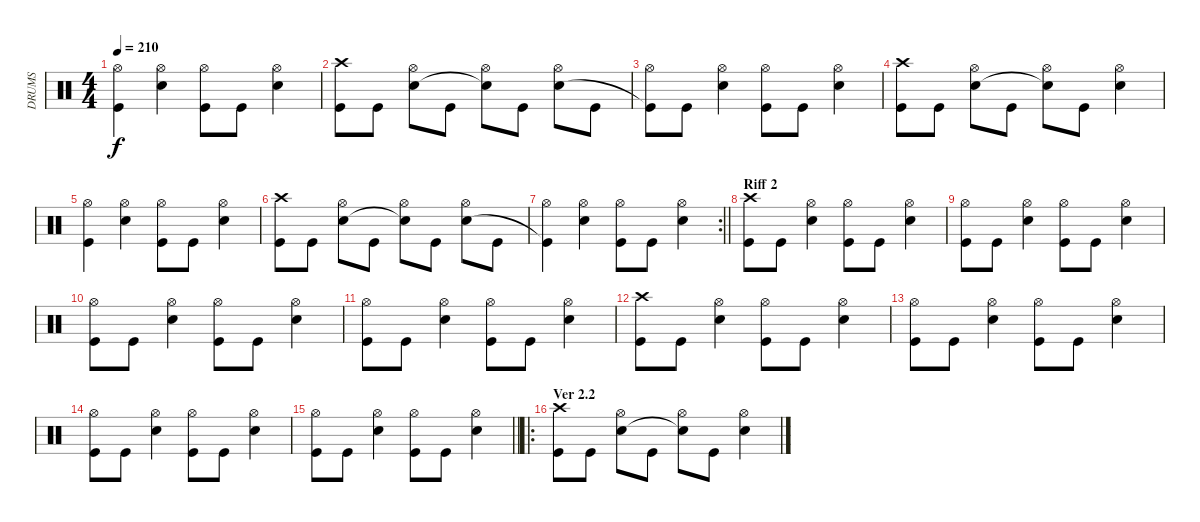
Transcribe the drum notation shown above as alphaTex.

\track ("DRUMS" "DRUMS") {instrument percussion}
\staff {score}
\articulation defaults
\ts (4 4)
\tempo 210
\clef neutral
\ks c
("Hi-Hat (open)" "Kick (hit)").4{dy f} ("Hi-Hat (open)" "Snare (hit) 2").4 ("Hi-Hat (open)" "Kick (hit)").8 "Kick (hit)".8 ("Hi-Hat (open)" "Snare (hit) 2").4 |
("Crash high (hit)" "Kick (hit)").8 "Kick (hit)".8 ("Hi-Hat (open)" "Snare (hit) 2").8 "Kick (hit)".8 ("Hi-Hat (open)" "Snare (hit)"{t}).8 "Kick (hit)".8 ("Hi-Hat (open)" "Snare (hit) 2").8 "Kick (hit)".8 |
("Hi-Hat (open)" "Kick (hit)"{t}).8 "Kick (hit)".8 ("Hi-Hat (open)" "Snare (hit) 2").4 ("Hi-Hat (open)" "Kick (hit)").8 "Kick (hit)".8 ("Hi-Hat (open)" "Snare (hit) 2").4 |
("Crash high (hit)" "Kick (hit)").8 "Kick (hit)".8 ("Hi-Hat (open)" "Snare (hit) 2").8 "Kick (hit)".8 ("Hi-Hat (open)" "Snare (hit)"{t}).8 "Kick (hit)".8 ("Hi-Hat (open)" "Snare (hit) 2").4 |
("Hi-Hat (open)" "Kick (hit)").4 ("Hi-Hat (open)" "Snare (hit) 2").4 ("Hi-Hat (open)" "Kick (hit)").8 "Kick (hit)".8 ("Hi-Hat (open)" "Snare (hit) 2").4 |
("Crash high (hit)" "Kick (hit)").8 "Kick (hit)".8 ("Hi-Hat (open)" "Snare (hit) 2").8 "Kick (hit)".8 ("Hi-Hat (open)" "Snare (hit)"{t}).8 "Kick (hit)".8 ("Hi-Hat (open)" "Snare (hit) 2").8 "Kick (hit)".8 |
\rc 2
\barLineRight lightlight
("Hi-Hat (open)" "Kick (hit)"{t}).4 ("Hi-Hat (open)" "Snare (hit) 2").4 ("Hi-Hat (open)" "Kick (hit)").8 "Kick (hit)".8 ("Hi-Hat (open)" "Snare (hit) 2").4 |
\section ("" "Riff 2")
("Crash high (hit)" "Kick (hit)").8 "Kick (hit)".8 ("Hi-Hat (open)" "Snare (hit) 2").4 ("Hi-Hat (open)" "Kick (hit)").8 "Kick (hit)".8 ("Hi-Hat (open)" "Snare (hit) 2").4 |
("Hi-Hat (open)" "Kick (hit)").8 "Kick (hit)".8 ("Hi-Hat (open)" "Snare (hit) 2").4 ("Hi-Hat (open)" "Kick (hit)").8 "Kick (hit)".8 ("Hi-Hat (open)" "Snare (hit) 2").4 |
("Hi-Hat (open)" "Kick (hit)").8 "Kick (hit)".8 ("Hi-Hat (open)" "Snare (hit) 2").4 ("Hi-Hat (open)" "Kick (hit)").8 "Kick (hit)".8 ("Hi-Hat (open)" "Snare (hit) 2").4 |
("Hi-Hat (open)" "Kick (hit)").8 "Kick (hit)".8 ("Hi-Hat (open)" "Snare (hit) 2").4 ("Hi-Hat (open)" "Kick (hit)").8 "Kick (hit)".8 ("Hi-Hat (open)" "Snare (hit) 2").4 |
("Crash high (hit)" "Kick (hit)").8 "Kick (hit)".8 ("Hi-Hat (open)" "Snare (hit) 2").4 ("Hi-Hat (open)" "Kick (hit)").8 "Kick (hit)".8 ("Hi-Hat (open)" "Snare (hit) 2").4 |
("Hi-Hat (open)" "Kick (hit)").8 "Kick (hit)".8 ("Hi-Hat (open)" "Snare (hit) 2").4 ("Hi-Hat (open)" "Kick (hit)").8 "Kick (hit)".8 ("Hi-Hat (open)" "Snare (hit) 2").4 |
("Hi-Hat (open)" "Kick (hit)").8 "Kick (hit)".8 ("Hi-Hat (open)" "Snare (hit) 2").4 ("Hi-Hat (open)" "Kick (hit)").8 "Kick (hit)".8 ("Hi-Hat (open)" "Snare (hit) 2").4 |
\barLineRight lightlight
("Hi-Hat (open)" "Kick (hit)").8 "Kick (hit)".8 ("Hi-Hat (open)" "Snare (hit) 2").4 ("Hi-Hat (open)" "Kick (hit)").8 "Kick (hit)".8 ("Hi-Hat (open)" "Snare (hit) 2").4 |
\ro
\section ("" "Ver 2.2")
("Crash high (hit)" "Kick (hit)").8 "Kick (hit)".8 ("Hi-Hat (open)" "Snare (hit) 2").8 "Kick (hit)".8 ("Hi-Hat (open)" "Snare (hit)"{t}).8 "Kick (hit)".8 ("Hi-Hat (open)" "Snare (hit) 2").4
